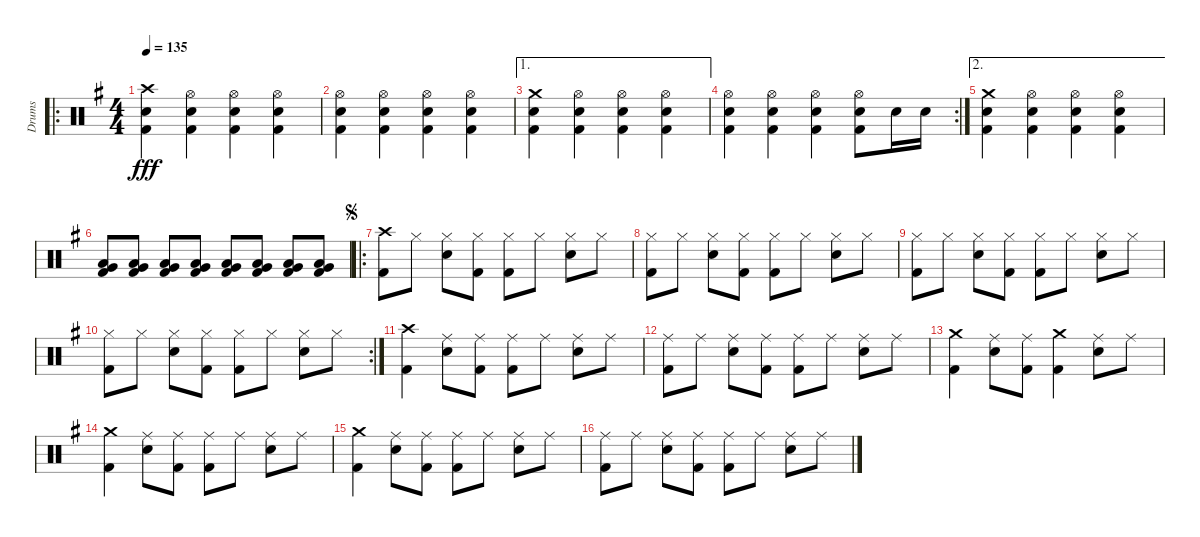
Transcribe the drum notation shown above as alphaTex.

\track ("Drums" "Drums") {instrument percussion}
\staff {score}
\articulation defaults
\ro
\ts (4 4)
\tempo 135
\clef neutral
\ks g
("Crash high (hit)" "Electric Snare (hit)" "Kick (hit) 2").4{dy fff} ("Hi-Hat (open)" "Electric Snare (hit)" "Kick (hit) 2").4 ("Hi-Hat (open)" "Electric Snare (hit)" "Kick (hit) 2").4 ("Hi-Hat (open)" "Electric Snare (hit)" "Kick (hit) 2").4 |
("Hi-Hat (open)" "Electric Snare (hit)" "Kick (hit) 2").4 ("Hi-Hat (open)" "Electric Snare (hit)" "Kick (hit) 2").4 ("Hi-Hat (open)" "Electric Snare (hit)" "Kick (hit) 2").4 ("Hi-Hat (open)" "Electric Snare (hit)" "Kick (hit) 2").4 |
\ae 1
("Crash medium (hit)" "Electric Snare (hit)" "Kick (hit) 2").4 ("Hi-Hat (open)" "Electric Snare (hit)" "Kick (hit) 2").4 ("Hi-Hat (open)" "Electric Snare (hit)" "Kick (hit) 2").4 ("Hi-Hat (open)" "Electric Snare (hit)" "Kick (hit) 2").4 |
\rc 2
("Hi-Hat (open)" "Electric Snare (hit)" "Kick (hit) 2").4 ("Hi-Hat (open)" "Electric Snare (hit)" "Kick (hit) 2").4 ("Hi-Hat (open)" "Electric Snare (hit)" "Kick (hit) 2").4 ("Hi-Hat (open)" "Electric Snare (hit)" "Kick (hit) 2").8 "Electric Snare (hit)".16 "Electric Snare (hit)".16 |
\ae 2
("Crash medium (hit)" "Electric Snare (hit)" "Kick (hit) 2").4 ("Hi-Hat (open)" "Electric Snare (hit)" "Kick (hit) 2").4 ("Hi-Hat (open)" "Electric Snare (hit)" "Kick (hit) 2").4 ("Hi-Hat (open)" "Electric Snare (hit)" "Kick (hit) 2").4 |
("Low Tom (hit)" "Very Low Tom (hit)" "Kick (hit) 2").8 ("Low Tom (hit)" "Very Low Tom (hit)" "Kick (hit) 2").8 ("Low Tom (hit)" "Very Low Tom (hit)" "Kick (hit) 2").8 ("Low Tom (hit)" "Very Low Tom (hit)" "Kick (hit) 2").8 ("Low Tom (hit)" "Very Low Tom (hit)" "Kick (hit) 2").8 ("Low Tom (hit)" "Very Low Tom (hit)" "Kick (hit) 2").8 ("Low Tom (hit)" "Very Low Tom (hit)" "Kick (hit) 2").8 ("Low Tom (hit)" "Very Low Tom (hit)" "Kick (hit) 2").8 |
\ro
\jump segno
("Crash high (hit)" "Kick (hit) 2").8 "Hi-Hat (closed)".8 ("Hi-Hat (closed)" "Electric Snare (hit)").8 ("Hi-Hat (closed)" "Kick (hit) 2").8 ("Hi-Hat (closed)" "Kick (hit) 2").8 "Hi-Hat (closed)".8 ("Hi-Hat (closed)" "Electric Snare (hit)").8 "Hi-Hat (closed)".8 |
("Hi-Hat (closed)" "Kick (hit) 2").8 "Hi-Hat (closed)".8 ("Hi-Hat (closed)" "Electric Snare (hit)").8 ("Hi-Hat (closed)" "Kick (hit) 2").8 ("Hi-Hat (closed)" "Kick (hit) 2").8 "Hi-Hat (closed)".8 ("Hi-Hat (closed)" "Electric Snare (hit)").8 "Hi-Hat (closed)".8 |
("Hi-Hat (closed)" "Kick (hit) 2").8 "Hi-Hat (closed)".8 ("Hi-Hat (closed)" "Electric Snare (hit)").8 ("Hi-Hat (closed)" "Kick (hit) 2").8 ("Hi-Hat (closed)" "Kick (hit) 2").8 "Hi-Hat (closed)".8 ("Hi-Hat (closed)" "Electric Snare (hit)").8 "Hi-Hat (closed)".8 |
\rc 2
("Hi-Hat (closed)" "Kick (hit) 2").8 "Hi-Hat (closed)".8 ("Hi-Hat (closed)" "Electric Snare (hit)").8 ("Hi-Hat (closed)" "Kick (hit) 2").8 ("Hi-Hat (closed)" "Kick (hit) 2").8 "Hi-Hat (closed)".8 ("Hi-Hat (closed)" "Electric Snare (hit)").8 "Hi-Hat (closed)".8 |
("Crash high (hit)" "Kick (hit) 2").4 ("Ride (middle)" "Electric Snare (hit)").8 ("Ride (middle)" "Kick (hit) 2").8 ("Ride (middle)" "Kick (hit) 2").8 "Ride (middle)".8 ("Ride (middle)" "Electric Snare (hit)").8 "Ride (middle)".8 |
("Ride (middle)" "Kick (hit) 2").8 "Ride (middle)".8 ("Ride (middle)" "Electric Snare (hit)").8 ("Ride (middle)" "Kick (hit) 2").8 ("Ride (middle)" "Kick (hit) 2").8 "Ride (middle)".8 ("Ride (middle)" "Electric Snare (hit)").8 "Ride (middle)".8 |
("Crash medium (hit)" "Kick (hit) 2").4 ("Ride (middle)" "Electric Snare (hit)").8 ("Ride (middle)" "Kick (hit) 2").8 ("Crash medium (hit)" "Kick (hit) 2").4 ("Ride (middle)" "Electric Snare (hit)").8 "Ride (middle)".8 |
("Crash medium (hit)" "Kick (hit) 2").4 ("Ride (middle)" "Electric Snare (hit)").8 ("Ride (middle)" "Kick (hit) 2").8 ("Ride (middle)" "Kick (hit) 2").8 "Ride (middle)".8 ("Ride (middle)" "Electric Snare (hit)").8 "Ride (middle)".8 |
("Crash medium (hit)" "Kick (hit) 2").4 ("Ride (middle)" "Electric Snare (hit)").8 ("Ride (middle)" "Kick (hit) 2").8 ("Ride (middle)" "Kick (hit) 2").8 "Ride (middle)".8 ("Ride (middle)" "Electric Snare (hit)").8 "Ride (middle)".8 |
("Ride (middle)" "Kick (hit) 2").8 "Ride (middle)".8 ("Ride (middle)" "Electric Snare (hit)").8 ("Ride (middle)" "Kick (hit) 2").8 ("Ride (middle)" "Kick (hit) 2").8 "Ride (middle)".8 ("Ride (middle)" "Electric Snare (hit)").8 "Ride (middle)".8
